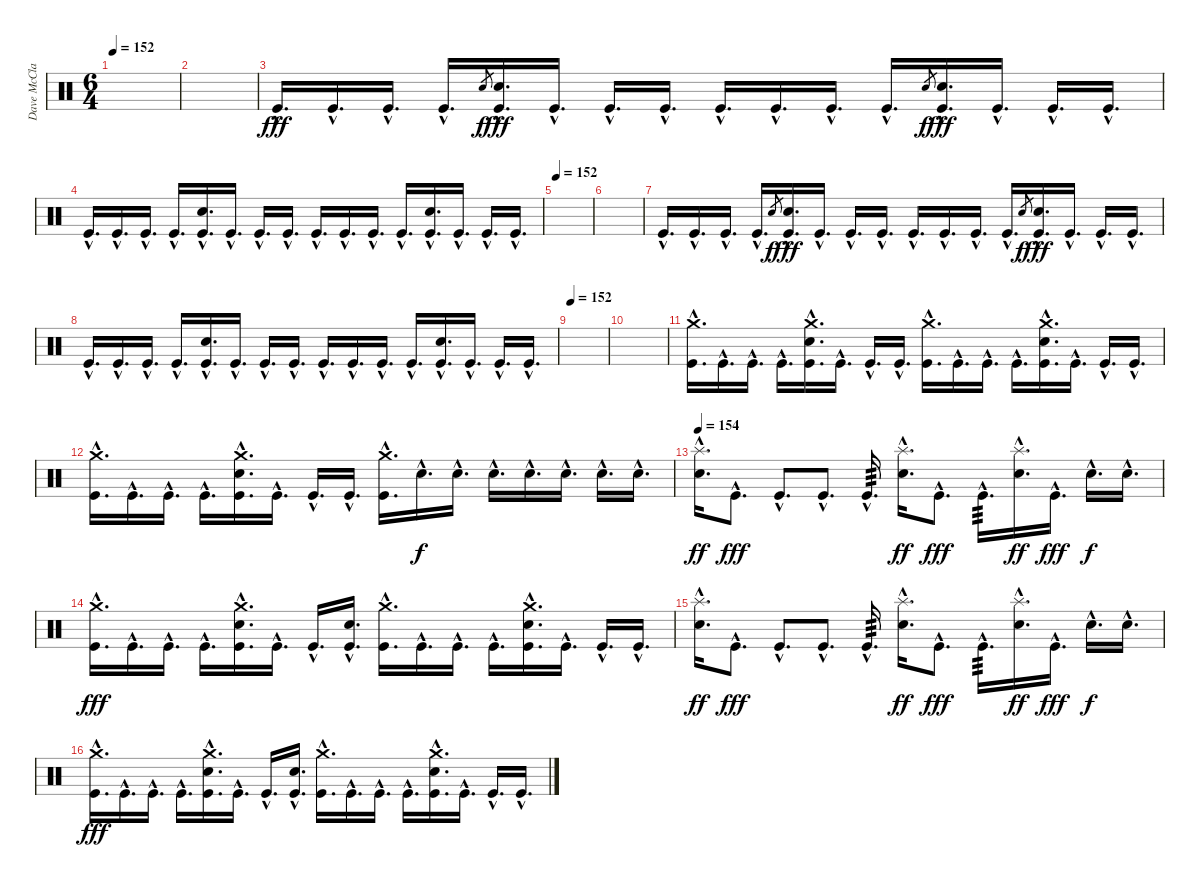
\track ("Dave McClain" "Dave McCla") {instrument percussion}
\staff {score}
\articulation defaults
\ts (6 4)
\tempo 152
\clef neutral
\ks c
|
|
"Kick (hit)"{hac}.16{d dy fff} "Kick (hit)"{hac}.16{d} "Kick (hit)"{hac}.16{d} "Kick (hit)"{hac}.16{d} "Electric Snare (hit)".8{gr dy f} ("Electric Snare (hit)"{hac} "Kick (hit)"{hac}).16{d dy fff} "Kick (hit)"{hac}.16{d} "Kick (hit)"{hac}.16{d} "Kick (hit)"{hac}.16{d} "Kick (hit)"{hac}.16{d} "Kick (hit)"{hac}.16{d} "Kick (hit)"{hac}.16{d} "Kick (hit)"{hac}.16{d} "Electric Snare (hit)".8{gr dy f} ("Electric Snare (hit)"{hac} "Kick (hit)"{hac}).16{d dy fff} "Kick (hit)"{hac}.16{d} "Kick (hit)"{hac}.16{d} "Kick (hit)"{hac}.16{d} |
"Kick (hit)"{hac}.16{d} "Kick (hit)"{hac}.16{d} "Kick (hit)"{hac}.16{d} "Kick (hit)"{hac}.16{d} ("Electric Snare (hit)"{hac} "Kick (hit)"{hac}).16{d} "Kick (hit)"{hac}.16{d} "Kick (hit)"{hac}.16{d} "Kick (hit)"{hac}.16{d} "Kick (hit)"{hac}.16{d} "Kick (hit)"{hac}.16{d} "Kick (hit)"{hac}.16{d} "Kick (hit)"{hac}.16{d} ("Electric Snare (hit)"{hac} "Kick (hit)"{hac}).16{d} "Kick (hit)"{hac}.16{d} "Kick (hit)"{hac}.16{d} "Kick (hit)"{hac}.16{d} |
\tempo 152
|
|
"Kick (hit)"{hac}.16{d} "Kick (hit)"{hac}.16{d} "Kick (hit)"{hac}.16{d} "Kick (hit)"{hac}.16{d} "Electric Snare (hit)".8{gr dy f} ("Electric Snare (hit)"{hac} "Kick (hit)"{hac}).16{d dy fff} "Kick (hit)"{hac}.16{d} "Kick (hit)"{hac}.16{d} "Kick (hit)"{hac}.16{d} "Kick (hit)"{hac}.16{d} "Kick (hit)"{hac}.16{d} "Kick (hit)"{hac}.16{d} "Kick (hit)"{hac}.16{d} "Electric Snare (hit)".8{gr dy f} ("Electric Snare (hit)"{hac} "Kick (hit)"{hac}).16{d dy fff} "Kick (hit)"{hac}.16{d} "Kick (hit)"{hac}.16{d} "Kick (hit)"{hac}.16{d} |
"Kick (hit)"{hac}.16{d} "Kick (hit)"{hac}.16{d} "Kick (hit)"{hac}.16{d} "Kick (hit)"{hac}.16{d} ("Electric Snare (hit)"{hac} "Kick (hit)"{hac}).16{d} "Kick (hit)"{hac}.16{d} "Kick (hit)"{hac}.16{d} "Kick (hit)"{hac}.16{d} "Kick (hit)"{hac}.16{d} "Kick (hit)"{hac}.16{d} "Kick (hit)"{hac}.16{d} "Kick (hit)"{hac}.16{d} ("Electric Snare (hit)"{hac} "Kick (hit)"{hac}).16{d} "Kick (hit)"{hac}.16{d} "Kick (hit)"{hac}.16{d} "Kick (hit)"{hac}.16{d} |
\tempo 156
\tempo 152
|
|
("Crash medium (hit)"{hac} "Kick (hit)"{hac}).16{d} "Kick (hit)"{hac}.16{d} "Kick (hit)"{hac}.16{d} "Kick (hit)"{hac}.16{d} ("Crash medium (hit)"{hac} "Electric Snare (hit)"{hac} "Kick (hit)"{hac}).16{d} "Kick (hit)"{hac}.16{d} "Kick (hit)"{hac}.16{d} "Kick (hit)"{hac}.16{d} ("Crash medium (hit)"{hac} "Kick (hit)"{hac}).16{d} "Kick (hit)"{hac}.16{d} "Kick (hit)"{hac}.16{d} "Kick (hit)"{hac}.16{d} ("Crash medium (hit)"{hac} "Electric Snare (hit)"{hac} "Kick (hit)"{hac}).16{d} "Kick (hit)"{hac}.16{d} "Kick (hit)"{hac}.16{d} "Kick (hit)"{hac}.16{d} |
("Crash medium (hit)"{hac} "Kick (hit)"{hac}).16{d} "Kick (hit)"{hac}.16{d} "Kick (hit)"{hac}.16{d} "Kick (hit)"{hac}.16{d} ("Crash medium (hit)"{hac} "Electric Snare (hit)"{hac} "Kick (hit)"{hac}).16{d} "Kick (hit)"{hac}.16{d} "Kick (hit)"{hac}.16{d} "Kick (hit)"{hac}.16{d} ("Crash medium (hit)"{hac} "Kick (hit)"{hac}).16{d} "Electric Snare (hit)"{hac}.16{d dy f} "Electric Snare (hit)"{hac}.16{d} "Electric Snare (hit)"{hac}.16{d} "Electric Snare (hit)"{hac}.16{d} "Electric Snare (hit)"{hac}.16{d} "Electric Snare (hit)"{hac}.16{d} "Electric Snare (hit)"{hac}.16{d} |
\tempo 154
("Splash (hit)"{hac} "Electric Snare (hit)"{hac}).16{d dy ff} "Kick (hit)"{hac}.8{d dy fff} "Kick (hit)"{hac}.8{d} "Kick (hit)"{hac}.8{d} "Kick (hit)"{hac}.16{d tp 3} ("Splash (hit)"{hac} "Electric Snare (hit)"{hac}).16{d dy ff} "Kick (hit)"{hac}.8{d dy fff} "Kick (hit)"{hac}.16{d tp 3} ("Splash (hit)"{hac} "Electric Snare (hit)"{hac}).16{d dy ff} "Kick (hit)"{hac}.16{d dy fff} "Electric Snare (hit)"{hac}.16{d dy f} "Electric Snare (hit)"{hac}.16{d} |
("Crash medium (hit)"{hac} "Kick (hit)"{hac}).16{d dy fff} "Kick (hit)"{hac}.16{d} "Kick (hit)"{hac}.16{d} "Kick (hit)"{hac}.16{d} ("Crash medium (hit)"{hac} "Electric Snare (hit)"{hac} "Kick (hit)"{hac}).16{d} "Kick (hit)"{hac}.16{d} "Kick (hit)"{hac}.16{d} ("Electric Snare (hit)"{hac} "Kick (hit)"{hac}).16{d} ("Crash medium (hit)"{hac} "Kick (hit)"{hac}).16{d} "Kick (hit)"{hac}.16{d} "Kick (hit)"{hac}.16{d} "Kick (hit)"{hac}.16{d} ("Crash medium (hit)"{hac} "Electric Snare (hit)"{hac} "Kick (hit)"{hac}).16{d} "Kick (hit)"{hac}.16{d} "Kick (hit)"{hac}.16{d} "Kick (hit)"{hac}.16{d} |
("Splash (hit)"{hac} "Electric Snare (hit)"{hac}).16{d dy ff} "Kick (hit)"{hac}.8{d dy fff} "Kick (hit)"{hac}.8{d} "Kick (hit)"{hac}.8{d} "Kick (hit)"{hac}.16{d tp 3} ("Splash (hit)"{hac} "Electric Snare (hit)"{hac}).16{d dy ff} "Kick (hit)"{hac}.8{d dy fff} "Kick (hit)"{hac}.16{d tp 3} ("Splash (hit)"{hac} "Electric Snare (hit)"{hac}).16{d dy ff} "Kick (hit)"{hac}.16{d dy fff} "Electric Snare (hit)"{hac}.16{d dy f} "Electric Snare (hit)"{hac}.16{d} |
("Crash medium (hit)"{hac} "Kick (hit)"{hac}).16{d dy fff} "Kick (hit)"{hac}.16{d} "Kick (hit)"{hac}.16{d} "Kick (hit)"{hac}.16{d} ("Crash medium (hit)"{hac} "Electric Snare (hit)"{hac} "Kick (hit)"{hac}).16{d} "Kick (hit)"{hac}.16{d} "Kick (hit)"{hac}.16{d} ("Electric Snare (hit)"{hac} "Kick (hit)"{hac}).16{d} ("Crash medium (hit)"{hac} "Kick (hit)"{hac}).16{d} "Kick (hit)"{hac}.16{d} "Kick (hit)"{hac}.16{d} "Kick (hit)"{hac}.16{d} ("Crash medium (hit)"{hac} "Electric Snare (hit)"{hac} "Kick (hit)"{hac}).16{d} "Kick (hit)"{hac}.16{d} "Kick (hit)"{hac}.16{d} "Kick (hit)"{hac}.16{d}
